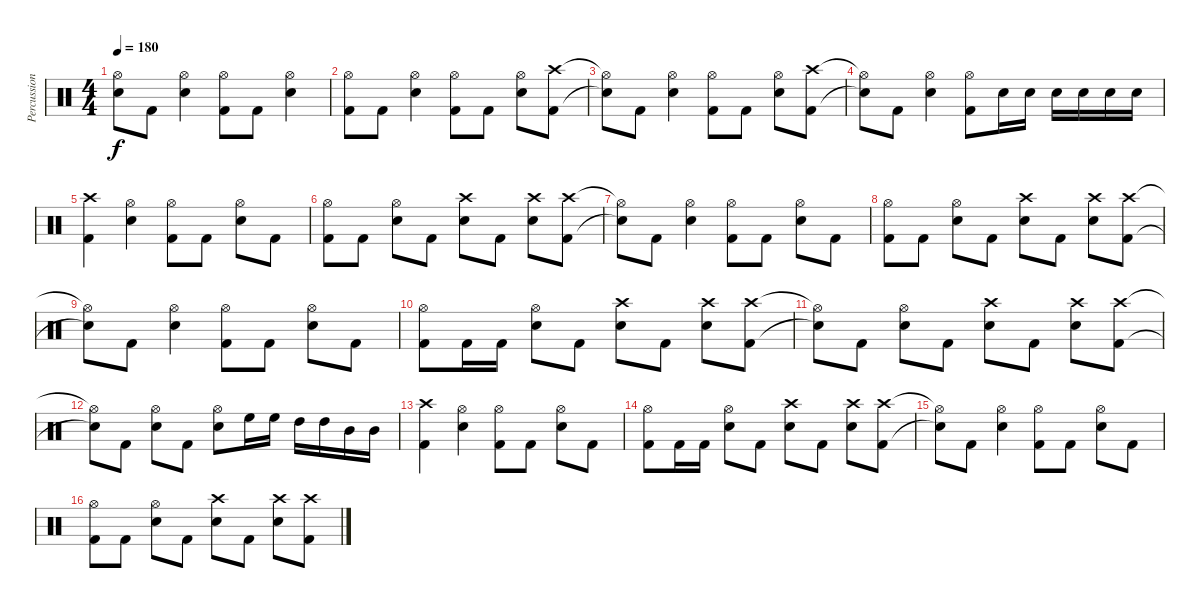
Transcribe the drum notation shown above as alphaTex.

\track ("Percussion" "Percussion") {instrument percussion}
\staff {score}
\articulation defaults
\ts (4 4)
\tempo 180
\clef neutral
\ks c
("Hi-Hat (open)"{t} "Snare (hit)"{t}).8{dy f} "Kick (hit) 2".8 ("Hi-Hat (open)" "Electric Snare (hit)").4 ("Hi-Hat (open)" "Kick (hit) 2").8 "Kick (hit) 2".8 ("Hi-Hat (open)" "Electric Snare (hit)").4 |
("Hi-Hat (open)" "Kick (hit) 2").8 "Kick (hit) 2".8 ("Hi-Hat (open)" "Electric Snare (hit)").4 ("Hi-Hat (open)" "Kick (hit) 2").8 "Kick (hit) 2".8 ("Hi-Hat (open)" "Electric Snare (hit)").8 ("Crash high (hit)" "Kick (hit) 2").8 |
("Hi-Hat (open)"{t} "Snare (hit)"{t}).8 "Kick (hit) 2".8 ("Hi-Hat (open)" "Electric Snare (hit)").4 ("Hi-Hat (open)" "Kick (hit) 2").8 "Kick (hit) 2".8 ("Hi-Hat (open)" "Electric Snare (hit)").8 ("Crash high (hit)" "Kick (hit) 2").8 |
("Hi-Hat (open)"{t} "Snare (hit)"{t}).8 "Kick (hit) 2".8 ("Hi-Hat (open)" "Electric Snare (hit)").4 ("Hi-Hat (open)" "Kick (hit) 2").8 "Electric Snare (hit)".16 "Electric Snare (hit)".16 "Electric Snare (hit)".16 "Electric Snare (hit)".16 "Electric Snare (hit)".16 "Electric Snare (hit)".16 |
("Crash high (hit)" "Kick (hit) 2").4 ("Hi-Hat (open)" "Electric Snare (hit)").4 ("Hi-Hat (open)" "Kick (hit) 2").8 "Kick (hit) 2".8 ("Hi-Hat (open)" "Electric Snare (hit)").8 "Kick (hit) 2".8 |
("Hi-Hat (open)" "Kick (hit) 2").8 "Kick (hit) 2".8 ("Hi-Hat (open)" "Electric Snare (hit)").8 "Kick (hit) 2".8 ("Crash high (hit)" "Electric Snare (hit)").8 "Kick (hit) 2".8 ("Crash high (hit)" "Electric Snare (hit)").8 ("Crash high (hit)" "Kick (hit) 2").8 |
("Hi-Hat (open)"{t} "Snare (hit)"{t}).8 "Kick (hit) 2".8 ("Hi-Hat (open)" "Electric Snare (hit)").4 ("Hi-Hat (open)" "Kick (hit) 2").8 "Kick (hit) 2".8 ("Hi-Hat (open)" "Electric Snare (hit)").8 "Kick (hit) 2".8 |
("Hi-Hat (open)" "Kick (hit) 2").8 "Kick (hit) 2".8 ("Hi-Hat (open)" "Electric Snare (hit)").8 "Kick (hit) 2".8 ("Crash high (hit)" "Electric Snare (hit)").8 "Kick (hit) 2".8 ("Crash high (hit)" "Electric Snare (hit)").8 ("Crash high (hit)" "Kick (hit) 2").8 |
("Hi-Hat (open)"{t} "Snare (hit)"{t}).8 "Kick (hit) 2".8 ("Hi-Hat (open)" "Electric Snare (hit)").4 ("Hi-Hat (open)" "Kick (hit) 2").8 "Kick (hit) 2".8 ("Hi-Hat (open)" "Electric Snare (hit)").8 "Kick (hit) 2".8 |
("Hi-Hat (open)" "Kick (hit) 2").8 "Kick (hit) 2".16 "Kick (hit) 2".16 ("Hi-Hat (open)" "Electric Snare (hit)").8 "Kick (hit) 2".8 ("Crash high (hit)" "Electric Snare (hit)").8 "Kick (hit) 2".8 ("Crash high (hit)" "Electric Snare (hit)").8 ("Crash high (hit)" "Kick (hit) 2").8 |
("Hi-Hat (open)"{t} "Snare (hit)"{t}).8 "Kick (hit) 2".8 ("Hi-Hat (open)" "Electric Snare (hit)").8 "Kick (hit) 2".8 ("Crash high (hit)" "Electric Snare (hit)").8 "Kick (hit) 2".8 ("Crash high (hit)" "Electric Snare (hit)").8 ("Crash high (hit)" "Kick (hit) 2").8 |
("Hi-Hat (open)"{t} "Snare (hit)"{t}).8 "Kick (hit) 2".8 ("Hi-Hat (open)" "Electric Snare (hit)").8 "Kick (hit) 2".8 ("Hi-Hat (open)" "Electric Snare (hit)").8 "High Floor Tom (hit)".16 "High Floor Tom (hit)".16 "High Tom (hit)".16 "High Tom (hit)".16 "Mid Tom (hit)".16 "Mid Tom (hit)".16 |
("Crash high (hit)" "Kick (hit) 2").4 ("Hi-Hat (open)" "Electric Snare (hit)").4 ("Hi-Hat (open)" "Kick (hit) 2").8 "Kick (hit) 2".8 ("Hi-Hat (open)" "Electric Snare (hit)").8 "Kick (hit) 2".8 |
("Hi-Hat (open)" "Kick (hit) 2").8 "Kick (hit) 2".16 "Kick (hit) 2".16 ("Hi-Hat (open)" "Electric Snare (hit)").8 "Kick (hit) 2".8 ("Crash high (hit)" "Electric Snare (hit)").8 "Kick (hit) 2".8 ("Crash high (hit)" "Electric Snare (hit)").8 ("Crash high (hit)" "Kick (hit) 2").8 |
("Hi-Hat (open)"{t} "Snare (hit)"{t}).8 "Kick (hit) 2".8 ("Hi-Hat (open)" "Electric Snare (hit)").4 ("Hi-Hat (open)" "Kick (hit) 2").8 "Kick (hit) 2".8 ("Hi-Hat (open)" "Electric Snare (hit)").8 "Kick (hit) 2".8 |
("Hi-Hat (open)" "Kick (hit) 2").8 "Kick (hit) 2".8 ("Hi-Hat (open)" "Electric Snare (hit)").8 "Kick (hit) 2".8 ("Crash high (hit)" "Electric Snare (hit)").8 "Kick (hit) 2".8 ("Crash high (hit)" "Electric Snare (hit)").8 ("Crash high (hit)" "Kick (hit) 2").8
